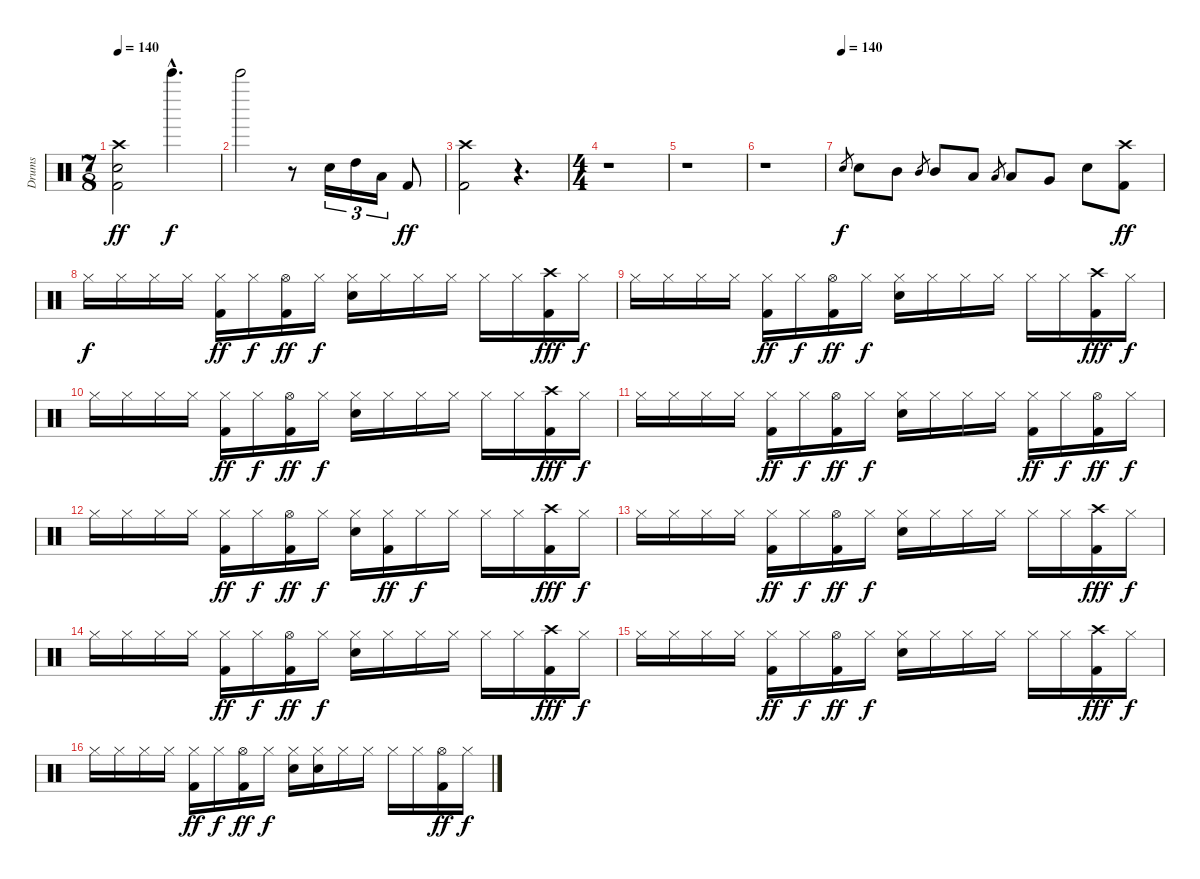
\track ("Drums" "Drums") {instrument percussion}
\staff {score}
\articulation defaults
\ts (7 8)
\tempo 140
\clef neutral
\ks c
("Crash high (hit)" "Snare (hit) 2" "Kick (hit) 2").2{dy ff} "Bell Tree (hit)"{hac}.4{d dy f} |
"Bell Tree (hit)".2 r.8 "Snare (hit) 2".16{tu (3 2)} "High Tom (hit)".16{tu (3 2)} "Low Floor Tom (hit)".16{tu (3 2)} "Kick (hit) 2".8{dy ff} |
("Crash high (hit)" "Kick (hit) 2").2 r.4{d} |
\ts (4 4)
r.1 |
r.1 |
r.1 |
\tempo (140)
"Snare (hit) 2".8{gr dy f} "Snare (hit) 2".8 "Mid Tom (hit)".8 "Mid Tom (hit)".8{gr} "Mid Tom (hit)".8 "Low Tom (hit)".8 "Low Tom (hit)".8{gr} "Low Tom (hit)".8 "Very Low Tom (hit)".8 "Snare (hit) 2".8 ("Crash high (hit)" "Kick (hit) 2").8{dy ff} |
"Hi-Hat (closed)".16{dy f} "Hi-Hat (closed)".16 "Hi-Hat (closed)".16 "Hi-Hat (closed)".16 ("Hi-Hat (closed)" "Kick (hit) 2").16{dy ff} "Hi-Hat (closed)".16{dy f} ("Hi-Hat (open)" "Kick (hit) 2").16{dy ff} "Hi-Hat (closed)".16{dy f} ("Hi-Hat (closed)" "Snare (hit) 2").16 "Hi-Hat (closed)".16 "Hi-Hat (closed)".16 "Hi-Hat (closed)".16 "Hi-Hat (closed)".16 "Hi-Hat (closed)".16 ("Kick (hit) 2" "Crash high (hit)").16{dy fff} "Hi-Hat (closed)".16{dy f} |
"Hi-Hat (closed)".16 "Hi-Hat (closed)".16 "Hi-Hat (closed)".16 "Hi-Hat (closed)".16 ("Hi-Hat (closed)" "Kick (hit) 2").16{dy ff} "Hi-Hat (closed)".16{dy f} ("Hi-Hat (open)" "Kick (hit) 2").16{dy ff} "Hi-Hat (closed)".16{dy f} ("Hi-Hat (closed)" "Snare (hit) 2").16 "Hi-Hat (closed)".16 "Hi-Hat (closed)".16 "Hi-Hat (closed)".16 "Hi-Hat (closed)".16 "Hi-Hat (closed)".16 ("Kick (hit) 2" "Crash high (hit)").16{dy fff} "Hi-Hat (closed)".16{dy f} |
"Hi-Hat (closed)".16 "Hi-Hat (closed)".16 "Hi-Hat (closed)".16 "Hi-Hat (closed)".16 ("Hi-Hat (closed)" "Kick (hit) 2").16{dy ff} "Hi-Hat (closed)".16{dy f} ("Hi-Hat (open)" "Kick (hit) 2").16{dy ff} "Hi-Hat (closed)".16{dy f} ("Hi-Hat (closed)" "Snare (hit) 2").16 "Hi-Hat (closed)".16 "Hi-Hat (closed)".16 "Hi-Hat (closed)".16 "Hi-Hat (closed)".16 "Hi-Hat (closed)".16 ("Kick (hit) 2" "Crash high (hit)").16{dy fff} "Hi-Hat (closed)".16{dy f} |
"Hi-Hat (closed)".16 "Hi-Hat (closed)".16 "Hi-Hat (closed)".16 "Hi-Hat (closed)".16 ("Hi-Hat (closed)" "Kick (hit) 2").16{dy ff} "Hi-Hat (closed)".16{dy f} ("Hi-Hat (open)" "Kick (hit) 2").16{dy ff} "Hi-Hat (closed)".16{dy f} ("Hi-Hat (closed)" "Snare (hit) 2").16 "Hi-Hat (closed)".16 "Hi-Hat (closed)".16 "Hi-Hat (closed)".16 ("Hi-Hat (closed)" "Kick (hit) 2").16{dy ff} "Hi-Hat (closed)".16{dy f} ("Hi-Hat (open)" "Kick (hit) 2").16{dy ff} "Hi-Hat (closed)".16{dy f} |
"Hi-Hat (closed)".16 "Hi-Hat (closed)".16 "Hi-Hat (closed)".16 "Hi-Hat (closed)".16 ("Hi-Hat (closed)" "Kick (hit) 2").16{dy ff} "Hi-Hat (closed)".16{dy f} ("Hi-Hat (open)" "Kick (hit) 2").16{dy ff} "Hi-Hat (closed)".16{dy f} ("Hi-Hat (closed)" "Snare (hit) 2").16 ("Hi-Hat (closed)" "Kick (hit) 2").16{dy ff} "Hi-Hat (closed)".16{dy f} "Hi-Hat (closed)".16 "Hi-Hat (closed)".16 "Hi-Hat (closed)".16 ("Kick (hit) 2" "Crash high (hit)").16{dy fff} "Hi-Hat (closed)".16{dy f} |
"Hi-Hat (closed)".16 "Hi-Hat (closed)".16 "Hi-Hat (closed)".16 "Hi-Hat (closed)".16 ("Hi-Hat (closed)" "Kick (hit) 2").16{dy ff} "Hi-Hat (closed)".16{dy f} ("Hi-Hat (open)" "Kick (hit) 2").16{dy ff} "Hi-Hat (closed)".16{dy f} ("Hi-Hat (closed)" "Snare (hit) 2").16 "Hi-Hat (closed)".16 "Hi-Hat (closed)".16 "Hi-Hat (closed)".16 "Hi-Hat (closed)".16 "Hi-Hat (closed)".16 ("Kick (hit) 2" "Crash high (hit)").16{dy fff} "Hi-Hat (closed)".16{dy f} |
"Hi-Hat (closed)".16 "Hi-Hat (closed)".16 "Hi-Hat (closed)".16 "Hi-Hat (closed)".16 ("Hi-Hat (closed)" "Kick (hit) 2").16{dy ff} "Hi-Hat (closed)".16{dy f} ("Hi-Hat (open)" "Kick (hit) 2").16{dy ff} "Hi-Hat (closed)".16{dy f} ("Hi-Hat (closed)" "Snare (hit) 2").16 "Hi-Hat (closed)".16 "Hi-Hat (closed)".16 "Hi-Hat (closed)".16 "Hi-Hat (closed)".16 "Hi-Hat (closed)".16 ("Kick (hit) 2" "Crash high (hit)").16{dy fff} "Hi-Hat (closed)".16{dy f} |
"Hi-Hat (closed)".16 "Hi-Hat (closed)".16 "Hi-Hat (closed)".16 "Hi-Hat (closed)".16 ("Hi-Hat (closed)" "Kick (hit) 2").16{dy ff} "Hi-Hat (closed)".16{dy f} ("Hi-Hat (open)" "Kick (hit) 2").16{dy ff} "Hi-Hat (closed)".16{dy f} ("Hi-Hat (closed)" "Snare (hit) 2").16 "Hi-Hat (closed)".16 "Hi-Hat (closed)".16 "Hi-Hat (closed)".16 "Hi-Hat (closed)".16 "Hi-Hat (closed)".16 ("Kick (hit) 2" "Crash high (hit)").16{dy fff} "Hi-Hat (closed)".16{dy f} |
"Hi-Hat (closed)".16 "Hi-Hat (closed)".16 "Hi-Hat (closed)".16 "Hi-Hat (closed)".16 ("Hi-Hat (closed)" "Kick (hit) 2").16{dy ff} "Hi-Hat (closed)".16{dy f} ("Hi-Hat (open)" "Kick (hit) 2").16{dy ff} "Hi-Hat (closed)".16{dy f} ("Hi-Hat (closed)" "Snare (hit) 2").16 ("Hi-Hat (closed)" "Snare (hit) 2").16 "Hi-Hat (closed)".16 "Hi-Hat (closed)".16 "Hi-Hat (closed)".16 "Hi-Hat (closed)".16 ("Hi-Hat (open)" "Kick (hit) 2").16{dy ff} "Hi-Hat (closed)".16{dy f}
